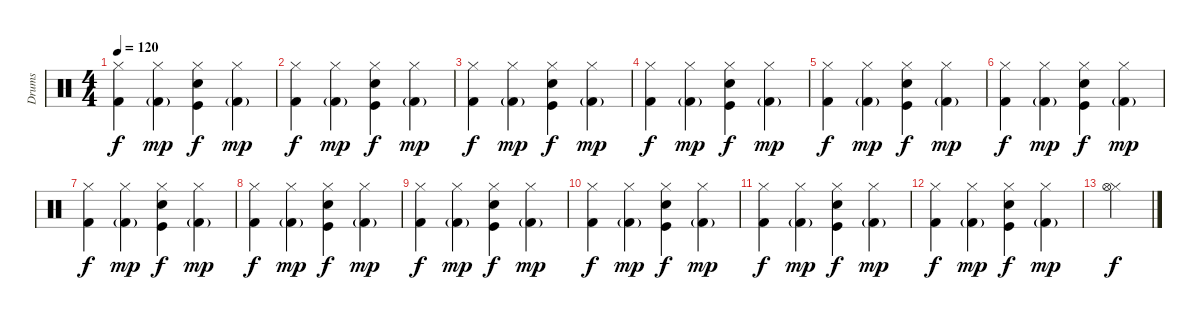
\track ("Drums" "Drums") {instrument percussion}
\staff {score}
\articulation defaults
\ts (4 4)
\tempo 120
\clef neutral
\ks c
("Kick (hit) 2" "Hi-Hat (closed)").4{dy f} ("Kick (hit) 2"{g} "Hi-Hat (closed)").4{dy mp} ("Kick (hit)" "Snare (hit) 2" "Hi-Hat (closed)").4{dy f} ("Kick (hit) 2"{g} "Hi-Hat (closed)").4{dy mp} |
("Kick (hit) 2" "Hi-Hat (closed)").4{dy f} ("Kick (hit) 2"{g} "Hi-Hat (closed)").4{dy mp} ("Kick (hit)" "Snare (hit) 2" "Hi-Hat (closed)").4{dy f} ("Kick (hit) 2"{g} "Hi-Hat (closed)").4{dy mp} |
("Kick (hit) 2" "Hi-Hat (closed)").4{dy f} ("Kick (hit) 2"{g} "Hi-Hat (closed)").4{dy mp} ("Kick (hit)" "Snare (hit) 2" "Hi-Hat (closed)").4{dy f} ("Kick (hit) 2"{g} "Hi-Hat (closed)").4{dy mp} |
("Kick (hit) 2" "Hi-Hat (closed)").4{dy f} ("Kick (hit) 2"{g} "Hi-Hat (closed)").4{dy mp} ("Kick (hit)" "Snare (hit) 2" "Hi-Hat (closed)").4{dy f} ("Kick (hit) 2"{g} "Hi-Hat (closed)").4{dy mp} |
("Kick (hit) 2" "Hi-Hat (closed)").4{dy f} ("Kick (hit) 2"{g} "Hi-Hat (closed)").4{dy mp} ("Kick (hit)" "Snare (hit) 2" "Hi-Hat (closed)").4{dy f} ("Kick (hit) 2"{g} "Hi-Hat (closed)").4{dy mp} |
("Kick (hit) 2" "Hi-Hat (closed)").4{dy f} ("Kick (hit) 2"{g} "Hi-Hat (closed)").4{dy mp} ("Kick (hit)" "Snare (hit) 2" "Hi-Hat (closed)").4{dy f} ("Kick (hit) 2"{g} "Hi-Hat (closed)").4{dy mp} |
("Kick (hit) 2" "Hi-Hat (closed)").4{dy f} ("Kick (hit) 2"{g} "Hi-Hat (closed)").4{dy mp} ("Kick (hit)" "Snare (hit) 2" "Hi-Hat (closed)").4{dy f} ("Kick (hit) 2"{g} "Hi-Hat (closed)").4{dy mp} |
("Kick (hit) 2" "Hi-Hat (closed)").4{dy f} ("Kick (hit) 2"{g} "Hi-Hat (closed)").4{dy mp} ("Kick (hit)" "Snare (hit) 2" "Hi-Hat (closed)").4{dy f} ("Kick (hit) 2"{g} "Hi-Hat (closed)").4{dy mp} |
("Kick (hit) 2" "Hi-Hat (closed)").4{dy f} ("Kick (hit) 2"{g} "Hi-Hat (closed)").4{dy mp} ("Kick (hit)" "Snare (hit) 2" "Hi-Hat (closed)").4{dy f} ("Kick (hit) 2"{g} "Hi-Hat (closed)").4{dy mp} |
("Kick (hit) 2" "Hi-Hat (closed)").4{dy f} ("Kick (hit) 2"{g} "Hi-Hat (closed)").4{dy mp} ("Kick (hit)" "Snare (hit) 2" "Hi-Hat (closed)").4{dy f} ("Kick (hit) 2"{g} "Hi-Hat (closed)").4{dy mp} |
("Kick (hit) 2" "Hi-Hat (closed)").4{dy f} ("Kick (hit) 2"{g} "Hi-Hat (closed)").4{dy mp} ("Kick (hit)" "Snare (hit) 2" "Hi-Hat (closed)").4{dy f} ("Kick (hit) 2"{g} "Hi-Hat (closed)").4{dy mp} |
("Kick (hit) 2" "Hi-Hat (closed)").4{dy f} ("Kick (hit) 2"{g} "Hi-Hat (closed)").4{dy mp} ("Kick (hit)" "Snare (hit) 2" "Hi-Hat (closed)").4{dy f} ("Kick (hit) 2"{g} "Hi-Hat (closed)").4{dy mp} |
("Hi-Hat (closed)" "Hi-Hat (open)").4{dy f}
